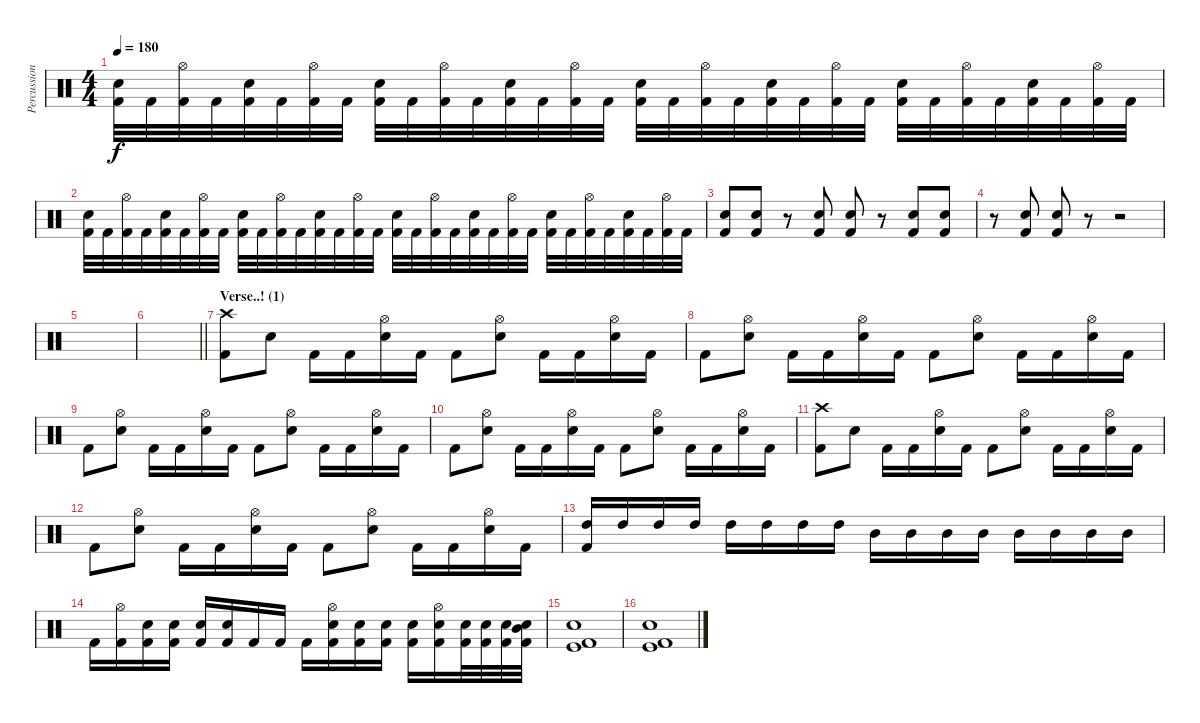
\track ("Percussions" "Percussion") {instrument percussion}
\staff {score}
\articulation defaults
\ts (4 4)
\tempo 180
\clef neutral
\ks c
("Snare (hit) 2" "Kick (hit) 2").32{dy f} "Kick (hit) 2".32 ("Hi-Hat (open)" "Kick (hit) 2").32 "Kick (hit) 2".32 ("Snare (hit) 2" "Kick (hit) 2").32 "Kick (hit) 2".32 ("Hi-Hat (open)" "Kick (hit) 2").32 "Kick (hit) 2".32 ("Snare (hit) 2" "Kick (hit) 2").32 "Kick (hit) 2".32 ("Hi-Hat (open)" "Kick (hit) 2").32 "Kick (hit) 2".32 ("Snare (hit) 2" "Kick (hit) 2").32 "Kick (hit) 2".32 ("Hi-Hat (open)" "Kick (hit) 2").32 "Kick (hit) 2".32 ("Snare (hit) 2" "Kick (hit) 2").32 "Kick (hit) 2".32 ("Hi-Hat (open)" "Kick (hit) 2").32 "Kick (hit) 2".32 ("Snare (hit) 2" "Kick (hit) 2").32 "Kick (hit) 2".32 ("Hi-Hat (open)" "Kick (hit) 2").32 "Kick (hit) 2".32 ("Snare (hit) 2" "Kick (hit) 2").32 "Kick (hit) 2".32 ("Hi-Hat (open)" "Kick (hit) 2").32 "Kick (hit) 2".32 ("Snare (hit) 2" "Kick (hit) 2").32 "Kick (hit) 2".32 ("Hi-Hat (open)" "Kick (hit) 2").32 "Kick (hit) 2".32 |
("Snare (hit) 2" "Kick (hit) 2").32 "Kick (hit) 2".32 ("Hi-Hat (open)" "Kick (hit) 2").32 "Kick (hit) 2".32 ("Snare (hit) 2" "Kick (hit) 2").32 "Kick (hit) 2".32 ("Hi-Hat (open)" "Kick (hit) 2").32 "Kick (hit) 2".32 ("Snare (hit) 2" "Kick (hit) 2").32 "Kick (hit) 2".32 ("Hi-Hat (open)" "Kick (hit) 2").32 "Kick (hit) 2".32 ("Snare (hit) 2" "Kick (hit) 2").32 "Kick (hit) 2".32 ("Hi-Hat (open)" "Kick (hit) 2").32 "Kick (hit) 2".32 ("Snare (hit) 2" "Kick (hit) 2").32 "Kick (hit) 2".32 ("Hi-Hat (open)" "Kick (hit) 2").32 "Kick (hit) 2".32 ("Snare (hit) 2" "Kick (hit) 2").32 "Kick (hit) 2".32 ("Hi-Hat (open)" "Kick (hit) 2").32 "Kick (hit) 2".32 ("Snare (hit) 2" "Kick (hit) 2").32 "Kick (hit) 2".32 ("Hi-Hat (open)" "Kick (hit) 2").32 "Kick (hit) 2".32 ("Snare (hit) 2" "Kick (hit) 2").32 "Kick (hit) 2".32 ("Hi-Hat (open)" "Kick (hit) 2").32 "Kick (hit) 2".32 |
("Snare (hit) 2" "Kick (hit) 2").8 ("Snare (hit) 2" "Kick (hit) 2").8 r.8 ("Snare (hit) 2" "Kick (hit) 2").8 ("Snare (hit) 2" "Kick (hit) 2").8 r.8 ("Snare (hit) 2" "Kick (hit) 2").8 ("Snare (hit) 2" "Kick (hit) 2").8 |
r.8 ("Snare (hit) 2" "Kick (hit) 2").8 ("Snare (hit) 2" "Kick (hit) 2").8 r.8 r.2 |
|
\barLineRight lightlight
|
\section ("" "Verse..! (1)")
("Crash high (hit)" "Kick (hit) 2").8 "Snare (hit) 2".8 "Kick (hit) 2".16 "Kick (hit) 2".16 ("Hi-Hat (open)" "Snare (hit) 2").16 "Kick (hit) 2".16 "Kick (hit) 2".8 ("Hi-Hat (open)" "Snare (hit) 2").8 "Kick (hit) 2".16 "Kick (hit) 2".16 ("Hi-Hat (open)" "Snare (hit) 2").16 "Kick (hit) 2".16 |
"Kick (hit) 2".8 ("Hi-Hat (open)" "Snare (hit) 2").8 "Kick (hit) 2".16 "Kick (hit) 2".16 ("Hi-Hat (open)" "Snare (hit) 2").16 "Kick (hit) 2".16 "Kick (hit) 2".8 ("Hi-Hat (open)" "Snare (hit) 2").8 "Kick (hit) 2".16 "Kick (hit) 2".16 ("Hi-Hat (open)" "Snare (hit) 2").16 "Kick (hit) 2".16 |
"Kick (hit) 2".8 ("Hi-Hat (open)" "Snare (hit) 2").8 "Kick (hit) 2".16 "Kick (hit) 2".16 ("Hi-Hat (open)" "Snare (hit) 2").16 "Kick (hit) 2".16 "Kick (hit) 2".8 ("Hi-Hat (open)" "Snare (hit) 2").8 "Kick (hit) 2".16 "Kick (hit) 2".16 ("Hi-Hat (open)" "Snare (hit) 2").16 "Kick (hit) 2".16 |
"Kick (hit) 2".8 ("Hi-Hat (open)" "Snare (hit) 2").8 "Kick (hit) 2".16 "Kick (hit) 2".16 ("Hi-Hat (open)" "Snare (hit) 2").16 "Kick (hit) 2".16 "Kick (hit) 2".8 ("Hi-Hat (open)" "Snare (hit) 2").8 "Kick (hit) 2".16 "Kick (hit) 2".16 ("Hi-Hat (open)" "Snare (hit) 2").16 "Kick (hit) 2".16 |
("Crash high (hit)" "Kick (hit) 2").8 "Snare (hit) 2".8 "Kick (hit) 2".16 "Kick (hit) 2".16 ("Hi-Hat (open)" "Snare (hit) 2").16 "Kick (hit) 2".16 "Kick (hit) 2".8 ("Hi-Hat (open)" "Snare (hit) 2").8 "Kick (hit) 2".16 "Kick (hit) 2".16 ("Hi-Hat (open)" "Snare (hit) 2").16 "Kick (hit) 2".16 |
"Kick (hit) 2".8 ("Hi-Hat (open)" "Snare (hit) 2").8 "Kick (hit) 2".16 "Kick (hit) 2".16 ("Hi-Hat (open)" "Snare (hit) 2").16 "Kick (hit) 2".16 "Kick (hit) 2".8 ("Hi-Hat (open)" "Snare (hit) 2").8 "Kick (hit) 2".16 "Kick (hit) 2".16 ("Hi-Hat (open)" "Snare (hit) 2").16 "Kick (hit) 2".16 |
("High Tom (hit)" "Kick (hit) 2").16 "High Tom (hit)".16 "High Tom (hit)".16 "High Tom (hit)".16 "High Tom (hit)".16 "High Tom (hit)".16 "High Tom (hit)".16 "High Tom (hit)".16 "Mid Tom (hit)".16 "Mid Tom (hit)".16 "Mid Tom (hit)".16 "Mid Tom (hit)".16 "Mid Tom (hit)".16 "Mid Tom (hit)".16 "Mid Tom (hit)".16 "Mid Tom (hit)".16 |
"Kick (hit) 2".16 ("Hi-Hat (open)" "Kick (hit) 2").16 ("Snare (hit) 2" "Kick (hit) 2").16 ("Snare (hit) 2" "Kick (hit) 2").16 ("Snare (hit) 2" "Kick (hit) 2").16 ("Snare (hit) 2" "Kick (hit) 2").16 "Kick (hit) 2".16 "Kick (hit) 2".16 "Kick (hit) 2".16 ("Hi-Hat (open)" "Snare (hit) 2" "Kick (hit) 2").16 ("Snare (hit) 2" "Kick (hit) 2").16 ("Snare (hit) 2" "Kick (hit) 2").16 ("Snare (hit) 2" "Kick (hit) 2").16 ("Hi-Hat (open)" "Snare (hit) 2" "Kick (hit) 2").16 ("Snare (hit) 2" "Kick (hit) 2").32 ("Snare (hit) 2" "Kick (hit) 2").32 ("Snare (hit) 2" "Kick (hit) 2").32 ("Mid Tom (hit)" "Snare (hit) 2" "Kick (hit) 2").32 |
("Snare (hit) 2" "Kick (hit) 2" "Kick (hit)").1 |
("Snare (hit) 2" "Kick (hit) 2" "Kick (hit)").1
